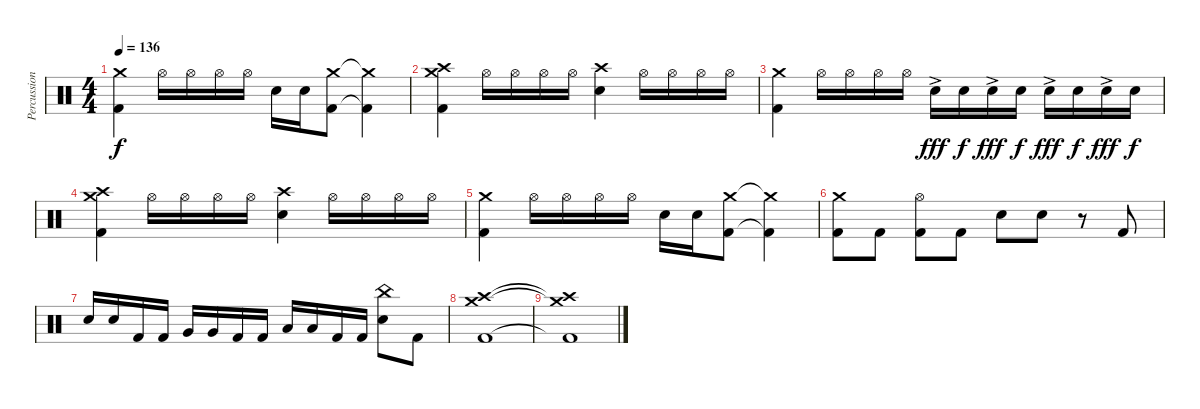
\track ("Percussion" "Percussion") {instrument percussion}
\staff {score}
\articulation defaults
\ts (4 4)
\tempo 136
\clef neutral
\ks c
("Crash medium (hit)" "Kick (hit) 2").4{dy f} "Hi-Hat (open)".16 "Hi-Hat (open)".16 "Hi-Hat (open)".16 "Hi-Hat (open)".16 "Electric Snare (hit)".16 "Electric Snare (hit)".16 ("Crash medium (hit)" "Kick (hit) 2").8 ("Crash medium (hit)"{t} "Kick (hit) 2"{t}).4 |
("Crash medium (hit)" "Crash high (hit)" "Kick (hit) 2").4 "Hi-Hat (open)".16 "Hi-Hat (open)".16 "Hi-Hat (open)".16 "Hi-Hat (open)".16 ("Crash high (hit)" "Electric Snare (hit)").4 "Hi-Hat (open)".16 "Hi-Hat (open)".16 "Hi-Hat (open)".16 "Hi-Hat (open)".16 |
("Crash medium (hit)" "Kick (hit) 2").4 "Hi-Hat (open)".16 "Hi-Hat (open)".16 "Hi-Hat (open)".16 "Hi-Hat (open)".16 "Electric Snare (hit)"{ac}.16{dy fff} "Electric Snare (hit)".16{dy f} "Electric Snare (hit)"{ac}.16{dy fff} "Electric Snare (hit)".16{dy f} "Electric Snare (hit)"{ac}.16{dy fff} "Electric Snare (hit)".16{dy f} "Electric Snare (hit)"{ac}.16{dy fff} "Electric Snare (hit)".16{dy f} |
("Crash medium (hit)" "Crash high (hit)" "Kick (hit) 2").4 "Hi-Hat (open)".16 "Hi-Hat (open)".16 "Hi-Hat (open)".16 "Hi-Hat (open)".16 ("Crash high (hit)" "Electric Snare (hit)").4 "Hi-Hat (open)".16 "Hi-Hat (open)".16 "Hi-Hat (open)".16 "Hi-Hat (open)".16 |
("Crash medium (hit)" "Kick (hit) 2").4 "Hi-Hat (open)".16 "Hi-Hat (open)".16 "Hi-Hat (open)".16 "Hi-Hat (open)".16 "Electric Snare (hit)".16 "Electric Snare (hit)".16 ("Crash medium (hit)" "Kick (hit) 2").8 ("Crash medium (hit)"{t} "Kick (hit) 2"{t}).4 |
("Crash medium (hit)" "Kick (hit) 2").8 "Kick (hit) 2".8 ("Hi-Hat (open)" "Kick (hit) 2").8 "Kick (hit) 2".8 "Electric Snare (hit)".8 "Electric Snare (hit)".8 r.8 "Kick (hit) 2".8 |
"Electric Snare (hit)".16 "Electric Snare (hit)".16 "Kick (hit) 2".16 "Kick (hit) 2".16 "Very Low Tom (hit)".16 "Very Low Tom (hit)".16 "Kick (hit) 2".16 "Kick (hit) 2".16 "Low Tom (hit)".16 "Low Tom (hit)".16 "Kick (hit) 2".16 "Kick (hit) 2".16 ("China (hit)" "Electric Snare (hit)").8 "Kick (hit) 2".8 |
("Crash medium (hit)" "Crash high (hit)" "Kick (hit) 2").1 |
("Crash medium (hit)"{t} "Crash high (hit)"{t} "Kick (hit) 2"{t}).1
